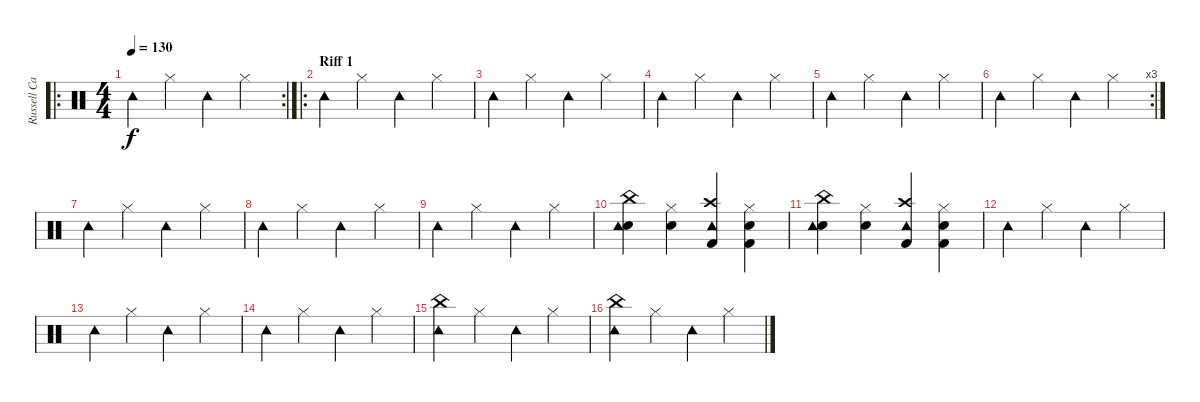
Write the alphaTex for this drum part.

\track ("Russell Cannon" "Russell Ca") {instrument percussion}
\staff {score}
\articulation defaults
\ro
\rc 2
\ts (4 4)
\tempo 130
\clef neutral
\ks c "Tambourine (hit)".4{dy f} "Hi-Hat (closed)".4 "Tambourine (hit)".4 "Hi-Hat (closed)".4
|
\ro
\section ("" "Riff 1")
"Tambourine (hit)".4 "Hi-Hat (closed)".4 "Tambourine (hit)".4 "Hi-Hat (closed)".4 |
"Tambourine (hit)".4 "Hi-Hat (closed)".4 "Tambourine (hit)".4 "Hi-Hat (closed)".4 |
"Tambourine (hit)".4 "Hi-Hat (closed)".4 "Tambourine (hit)".4 "Hi-Hat (closed)".4 |
"Tambourine (hit)".4 "Hi-Hat (closed)".4 "Tambourine (hit)".4 "Hi-Hat (closed)".4 |
\rc 3 "Tambourine (hit)".4 "Hi-Hat (closed)".4 "Tambourine (hit)".4 "Hi-Hat (closed)".4
|
"Tambourine (hit)".4 "Hi-Hat (closed)".4 "Tambourine (hit)".4 "Hi-Hat (closed)".4 |
"Tambourine (hit)".4 "Hi-Hat (closed)".4 "Tambourine (hit)".4 "Hi-Hat (closed)".4 |
"Tambourine (hit)".4 "Hi-Hat (closed)".4 "Tambourine (hit)".4 "Hi-Hat (closed)".4 |
("Electric Snare (hit)" "China (hit)" "Tambourine (hit)").4 ("Electric Snare (hit)" "Hi-Hat (closed)").4 ("Crash high (hit)" "Kick (hit) 2" "Tambourine (hit)").4 ("Electric Snare (hit)" "Kick (hit) 2" "Hi-Hat (closed)").4 |
("Electric Snare (hit)" "China (hit)" "Tambourine (hit)").4 ("Electric Snare (hit)" "Hi-Hat (closed)").4 ("Crash high (hit)" "Kick (hit) 2" "Tambourine (hit)").4 ("Electric Snare (hit)" "Kick (hit) 2" "Hi-Hat (closed)").4 |
"Tambourine (hit)".4 "Hi-Hat (closed)".4 "Tambourine (hit)".4 "Hi-Hat (closed)".4 |
"Tambourine (hit)".4 "Hi-Hat (closed)".4 "Tambourine (hit)".4 "Hi-Hat (closed)".4 |
"Tambourine (hit)".4 "Hi-Hat (closed)".4 "Tambourine (hit)".4 "Hi-Hat (closed)".4 |
("China (hit)" "Tambourine (hit)").4 "Hi-Hat (closed)".4 "Tambourine (hit)".4 "Hi-Hat (closed)".4 |
("China (hit)" "Tambourine (hit)").4 "Hi-Hat (closed)".4 "Tambourine (hit)".4 "Hi-Hat (closed)".4
